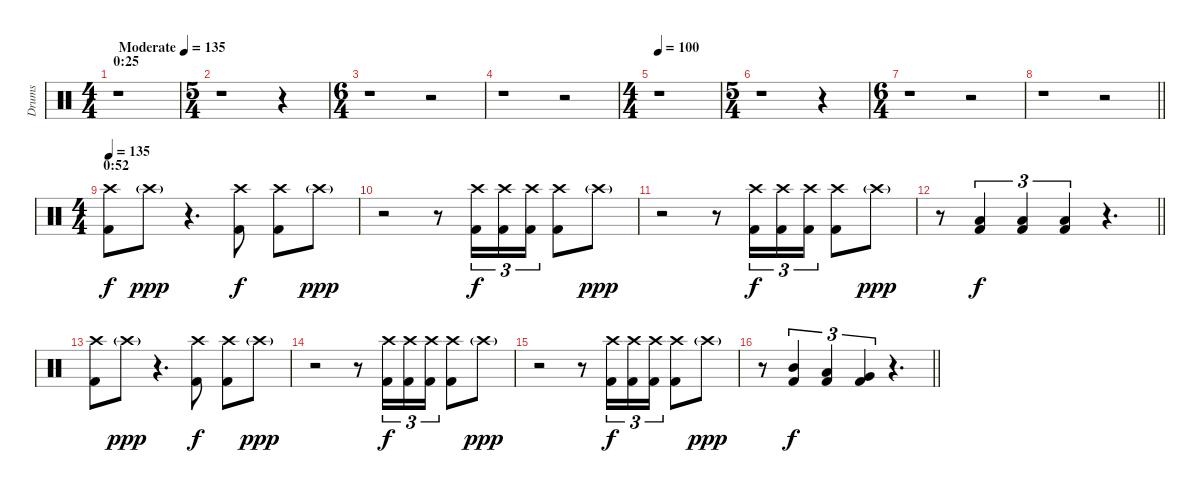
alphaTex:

\track ("Drums" "Drums") {instrument percussion}
\staff {score}
\articulation defaults
\ts (4 4)
\section ("" "0:25")
\tempo (135 "Moderate")
\tempo 100
\tempo (135 "Moderate")
\clef neutral
\ks c
r.1{dy f} |
\ts (5 4)
r.1 r.4 |
\ts (6 4)
r.1 r.2 |
r.1 r.2 |
\ts (4 4)
\tempo 100
r.1 |
\ts (5 4)
r.1 r.4 |
\ts (6 4)
r.1 r.2 |
\barLineRight lightlight
r.1 r.2 |
\ts (4 4)
\section ("" "0:52")
\tempo 135
("Crash high (hit)" "Kick (hit) 2").8 "Crash high (hit)"{g}.8{dy ppp} r.4{d} ("Crash high (hit)" "Kick (hit) 2").8{dy f} ("Crash high (hit)" "Kick (hit) 2").8 "Crash high (hit)"{g}.8{dy ppp} |
r.2 r.8 ("Crash high (hit)" "Kick (hit) 2").16{tu (3 2) dy f} ("Crash high (hit)" "Kick (hit) 2").16{tu (3 2)} ("Crash high (hit)" "Kick (hit) 2").16{tu (3 2)} ("Crash high (hit)" "Kick (hit) 2").8 "Crash high (hit)"{g}.8{dy ppp} |
r.2 r.8 ("Crash high (hit)" "Kick (hit) 2").16{tu (3 2) dy f} ("Crash high (hit)" "Kick (hit) 2").16{tu (3 2)} ("Crash high (hit)" "Kick (hit) 2").16{tu (3 2)} ("Crash high (hit)" "Kick (hit) 2").8 "Crash high (hit)"{g}.8{dy ppp} |
\barLineRight lightlight
r.8 ("Low Tom (hit)" "Kick (hit) 2").4{tu (3 2) dy f} ("Low Tom (hit)" "Kick (hit) 2").4{tu (3 2)} ("Low Tom (hit)" "Kick (hit) 2").4{tu (3 2)} r.4{d} |
("Crash high (hit)" "Kick (hit) 2").8 "Crash high (hit)"{g}.8{dy ppp} r.4{d} ("Crash high (hit)" "Kick (hit) 2").8{dy f} ("Crash high (hit)" "Kick (hit) 2").8 "Crash high (hit)"{g}.8{dy ppp} |
r.2 r.8 ("Crash high (hit)" "Kick (hit) 2").16{tu (3 2) dy f} ("Crash high (hit)" "Kick (hit) 2").16{tu (3 2)} ("Crash high (hit)" "Kick (hit) 2").16{tu (3 2)} ("Crash high (hit)" "Kick (hit) 2").8 "Crash high (hit)"{g}.8{dy ppp} |
r.2 r.8 ("Crash high (hit)" "Kick (hit) 2").16{tu (3 2) dy f} ("Crash high (hit)" "Kick (hit) 2").16{tu (3 2)} ("Crash high (hit)" "Kick (hit) 2").16{tu (3 2)} ("Crash high (hit)" "Kick (hit) 2").8 "Crash high (hit)"{g}.8{dy ppp} |
\barLineRight lightlight
r.8 ("Mid Tom (hit)" "Kick (hit) 2").4{tu (3 2) dy f} ("Low Tom (hit)" "Kick (hit) 2").4{tu (3 2)} ("Very Low Tom (hit)" "Kick (hit) 2").4{tu (3 2)} r.4{d}
